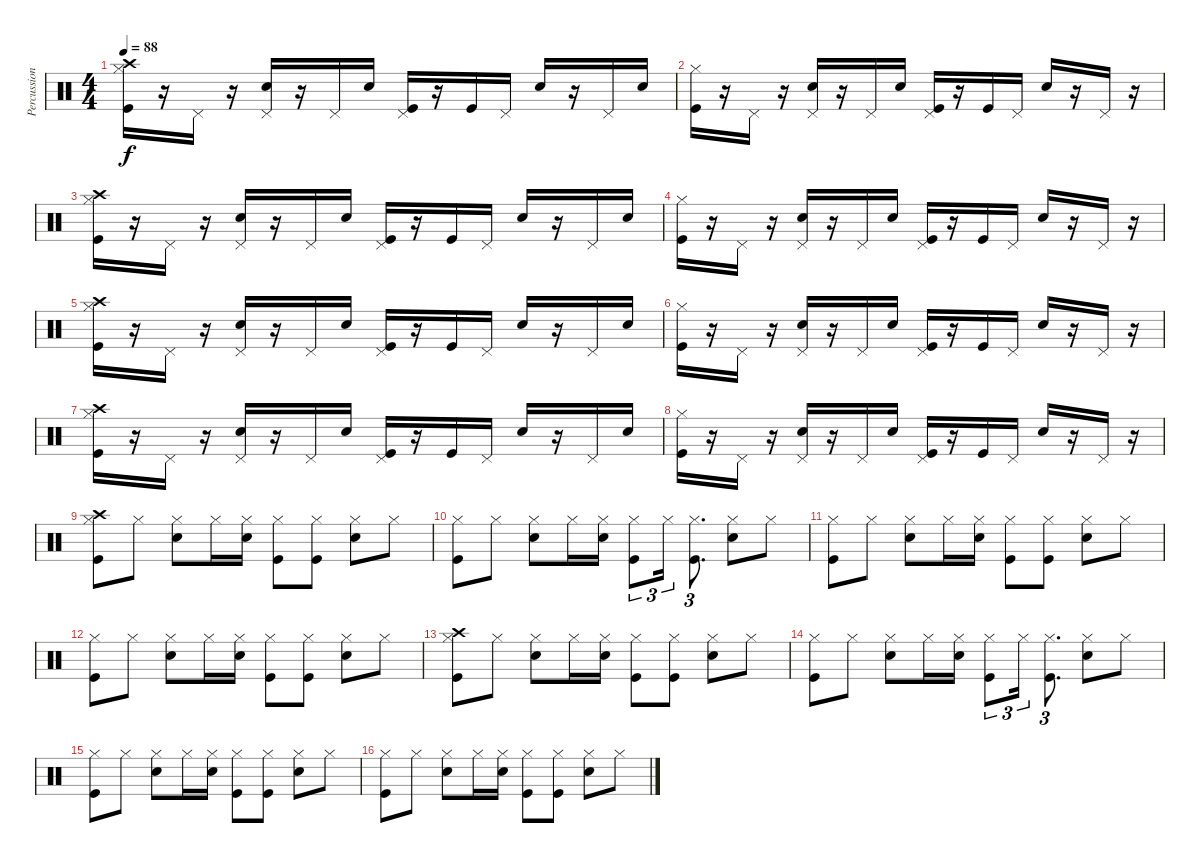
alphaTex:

\track ("Percussions" "Percussion") {instrument percussion}
\staff {score}
\articulation defaults
\ts (4 4)
\tempo 88
\clef neutral
\ks c
("Crash high (hit)" "Hi-Hat (closed)" "Kick (hit)").16{dy f} r.16 "Pedal Hi-Hat (hit)".16 r.16 ("Electric Snare (hit)" "Pedal Hi-Hat (hit)").16 r.16 "Pedal Hi-Hat (hit)".16 "Electric Snare (hit)".16 ("Kick (hit)" "Pedal Hi-Hat (hit)").16 r.16 "Kick (hit)".16 "Pedal Hi-Hat (hit)".16 "Electric Snare (hit)".16 r.16 "Pedal Hi-Hat (hit)".16 "Electric Snare (hit)".16 |
("Hi-Hat (closed)" "Kick (hit)").16 r.16 "Pedal Hi-Hat (hit)".16 r.16 ("Electric Snare (hit)" "Pedal Hi-Hat (hit)").16 r.16 "Pedal Hi-Hat (hit)".16 "Electric Snare (hit)".16 ("Kick (hit)" "Pedal Hi-Hat (hit)").16 r.16 "Kick (hit)".16 "Pedal Hi-Hat (hit)".16 "Electric Snare (hit)".16 r.16 "Pedal Hi-Hat (hit)".16 r.16 |
("Crash high (hit)" "Hi-Hat (closed)" "Kick (hit)").16 r.16 "Pedal Hi-Hat (hit)".16 r.16 ("Electric Snare (hit)" "Pedal Hi-Hat (hit)").16 r.16 "Pedal Hi-Hat (hit)".16 "Electric Snare (hit)".16 ("Kick (hit)" "Pedal Hi-Hat (hit)").16 r.16 "Kick (hit)".16 "Pedal Hi-Hat (hit)".16 "Electric Snare (hit)".16 r.16 "Pedal Hi-Hat (hit)".16 "Electric Snare (hit)".16 |
("Hi-Hat (closed)" "Kick (hit)").16 r.16 "Pedal Hi-Hat (hit)".16 r.16 ("Electric Snare (hit)" "Pedal Hi-Hat (hit)").16 r.16 "Pedal Hi-Hat (hit)".16 "Electric Snare (hit)".16 ("Kick (hit)" "Pedal Hi-Hat (hit)").16 r.16 "Kick (hit)".16 "Pedal Hi-Hat (hit)".16 "Electric Snare (hit)".16 r.16 "Pedal Hi-Hat (hit)".16 r.16 |
("Crash high (hit)" "Hi-Hat (closed)" "Kick (hit)").16 r.16 "Pedal Hi-Hat (hit)".16 r.16 ("Electric Snare (hit)" "Pedal Hi-Hat (hit)").16 r.16 "Pedal Hi-Hat (hit)".16 "Electric Snare (hit)".16 ("Kick (hit)" "Pedal Hi-Hat (hit)").16 r.16 "Kick (hit)".16 "Pedal Hi-Hat (hit)".16 "Electric Snare (hit)".16 r.16 "Pedal Hi-Hat (hit)".16 "Electric Snare (hit)".16 |
("Hi-Hat (closed)" "Kick (hit)").16 r.16 "Pedal Hi-Hat (hit)".16 r.16 ("Electric Snare (hit)" "Pedal Hi-Hat (hit)").16 r.16 "Pedal Hi-Hat (hit)".16 "Electric Snare (hit)".16 ("Kick (hit)" "Pedal Hi-Hat (hit)").16 r.16 "Kick (hit)".16 "Pedal Hi-Hat (hit)".16 "Electric Snare (hit)".16 r.16 "Pedal Hi-Hat (hit)".16 r.16 |
("Crash high (hit)" "Hi-Hat (closed)" "Kick (hit)").16 r.16 "Pedal Hi-Hat (hit)".16 r.16 ("Electric Snare (hit)" "Pedal Hi-Hat (hit)").16 r.16 "Pedal Hi-Hat (hit)".16 "Electric Snare (hit)".16 ("Kick (hit)" "Pedal Hi-Hat (hit)").16 r.16 "Kick (hit)".16 "Pedal Hi-Hat (hit)".16 "Electric Snare (hit)".16 r.16 "Pedal Hi-Hat (hit)".16 "Electric Snare (hit)".16 |
("Hi-Hat (closed)" "Kick (hit)").16 r.16 "Pedal Hi-Hat (hit)".16 r.16 ("Electric Snare (hit)" "Pedal Hi-Hat (hit)").16 r.16 "Pedal Hi-Hat (hit)".16 "Electric Snare (hit)".16 ("Kick (hit)" "Pedal Hi-Hat (hit)").16 r.16 "Kick (hit)".16 "Pedal Hi-Hat (hit)".16 "Electric Snare (hit)".16 r.16 "Pedal Hi-Hat (hit)".16 r.16 |
("Crash high (hit)" "Hi-Hat (closed)" "Kick (hit)").8 "Hi-Hat (closed)".8 ("Electric Snare (hit)" "Hi-Hat (closed)").8 "Hi-Hat (closed)".16 ("Electric Snare (hit)" "Hi-Hat (closed)").16 ("Hi-Hat (closed)" "Kick (hit)").8 ("Hi-Hat (closed)" "Kick (hit)").8 ("Electric Snare (hit)" "Hi-Hat (closed)").8 "Hi-Hat (closed)".8 |
("Hi-Hat (closed)" "Kick (hit)").8 "Hi-Hat (closed)".8 ("Electric Snare (hit)" "Hi-Hat (closed)").8 "Hi-Hat (closed)".16 ("Electric Snare (hit)" "Hi-Hat (closed)").16 ("Hi-Hat (closed)" "Kick (hit)").8{tu (3 2)} "Hi-Hat (closed)".16{tu (3 2)} ("Hi-Hat (closed)" "Kick (hit)").8{d tu (3 2)} ("Electric Snare (hit)" "Hi-Hat (closed)").8 "Hi-Hat (closed)".8 |
("Hi-Hat (closed)" "Kick (hit)").8 "Hi-Hat (closed)".8 ("Electric Snare (hit)" "Hi-Hat (closed)").8 "Hi-Hat (closed)".16 ("Electric Snare (hit)" "Hi-Hat (closed)").16 ("Hi-Hat (closed)" "Kick (hit)").8 ("Hi-Hat (closed)" "Kick (hit)").8 ("Electric Snare (hit)" "Hi-Hat (closed)").8 "Hi-Hat (closed)".8 |
("Hi-Hat (closed)" "Kick (hit)").8 "Hi-Hat (closed)".8 ("Electric Snare (hit)" "Hi-Hat (closed)").8 "Hi-Hat (closed)".16 ("Electric Snare (hit)" "Hi-Hat (closed)").16 ("Hi-Hat (closed)" "Kick (hit)").8 ("Hi-Hat (closed)" "Kick (hit)").8 ("Electric Snare (hit)" "Hi-Hat (closed)").8 "Hi-Hat (closed)".8 |
("Crash high (hit)" "Hi-Hat (closed)" "Kick (hit)").8 "Hi-Hat (closed)".8 ("Electric Snare (hit)" "Hi-Hat (closed)").8 "Hi-Hat (closed)".16 ("Electric Snare (hit)" "Hi-Hat (closed)").16 ("Hi-Hat (closed)" "Kick (hit)").8 ("Hi-Hat (closed)" "Kick (hit)").8 ("Electric Snare (hit)" "Hi-Hat (closed)").8 "Hi-Hat (closed)".8 |
("Hi-Hat (closed)" "Kick (hit)").8 "Hi-Hat (closed)".8 ("Electric Snare (hit)" "Hi-Hat (closed)").8 "Hi-Hat (closed)".16 ("Electric Snare (hit)" "Hi-Hat (closed)").16 ("Hi-Hat (closed)" "Kick (hit)").8{tu (3 2)} "Hi-Hat (closed)".16{tu (3 2)} ("Hi-Hat (closed)" "Kick (hit)").8{d tu (3 2)} ("Electric Snare (hit)" "Hi-Hat (closed)").8 "Hi-Hat (closed)".8 |
("Hi-Hat (closed)" "Kick (hit)").8 "Hi-Hat (closed)".8 ("Electric Snare (hit)" "Hi-Hat (closed)").8 "Hi-Hat (closed)".16 ("Electric Snare (hit)" "Hi-Hat (closed)").16 ("Hi-Hat (closed)" "Kick (hit)").8 ("Hi-Hat (closed)" "Kick (hit)").8 ("Electric Snare (hit)" "Hi-Hat (closed)").8 "Hi-Hat (closed)".8 |
("Hi-Hat (closed)" "Kick (hit)").8 "Hi-Hat (closed)".8 ("Electric Snare (hit)" "Hi-Hat (closed)").8 "Hi-Hat (closed)".16 ("Electric Snare (hit)" "Hi-Hat (closed)").16 ("Hi-Hat (closed)" "Kick (hit)").8 ("Hi-Hat (closed)" "Kick (hit)").8 ("Electric Snare (hit)" "Hi-Hat (closed)").8 "Hi-Hat (closed)".8
